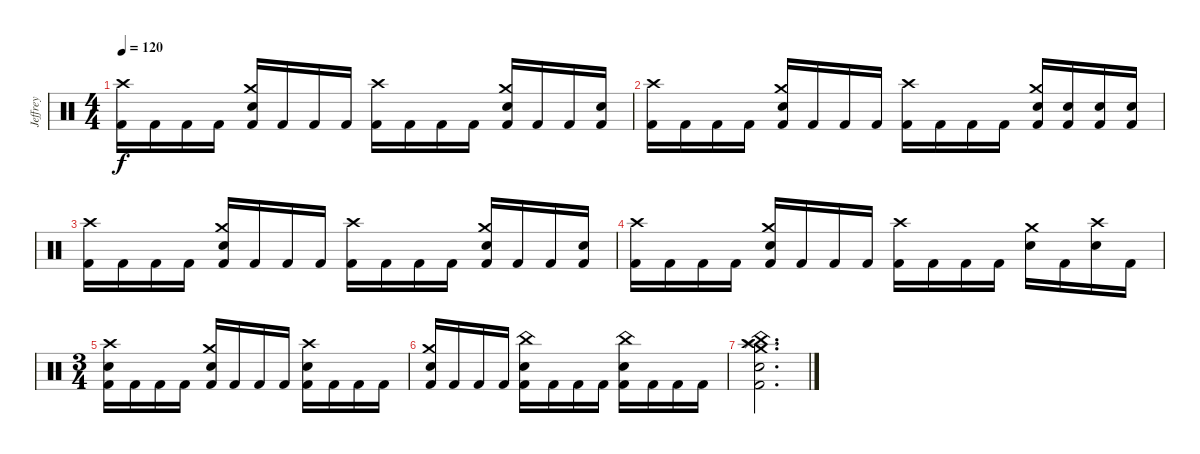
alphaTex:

\track ("Jeffrey" "Jeffrey") {instrument percussion}
\staff {score}
\articulation defaults
\ts (4 4)
\tempo 120
\clef neutral
\ks c
("Crash high (hit)" "Kick (hit) 2").16{dy f} "Kick (hit) 2".16 "Kick (hit) 2".16 "Kick (hit) 2".16 ("Crash medium (hit)" "Electric Snare (hit)" "Kick (hit) 2").16 "Kick (hit) 2".16 "Kick (hit) 2".16 "Kick (hit) 2".16 ("Crash high (hit)" "Kick (hit) 2").16 "Kick (hit) 2".16 "Kick (hit) 2".16 "Kick (hit) 2".16 ("Crash medium (hit)" "Electric Snare (hit)" "Kick (hit) 2").16 "Kick (hit) 2".16 "Kick (hit) 2".16 ("Electric Snare (hit)" "Kick (hit) 2").16 |
("Crash high (hit)" "Kick (hit) 2").16 "Kick (hit) 2".16 "Kick (hit) 2".16 "Kick (hit) 2".16 ("Crash medium (hit)" "Electric Snare (hit)" "Kick (hit) 2").16 "Kick (hit) 2".16 "Kick (hit) 2".16 "Kick (hit) 2".16 ("Crash high (hit)" "Kick (hit) 2").16 "Kick (hit) 2".16 "Kick (hit) 2".16 "Kick (hit) 2".16 ("Crash medium (hit)" "Electric Snare (hit)" "Kick (hit) 2").16 ("Electric Snare (hit)" "Kick (hit) 2").16 ("Electric Snare (hit)" "Kick (hit) 2").16 ("Electric Snare (hit)" "Kick (hit) 2").16 |
("Crash high (hit)" "Kick (hit) 2").16 "Kick (hit) 2".16 "Kick (hit) 2".16 "Kick (hit) 2".16 ("Crash medium (hit)" "Electric Snare (hit)" "Kick (hit) 2").16 "Kick (hit) 2".16 "Kick (hit) 2".16 "Kick (hit) 2".16 ("Crash high (hit)" "Kick (hit) 2").16 "Kick (hit) 2".16 "Kick (hit) 2".16 "Kick (hit) 2".16 ("Crash medium (hit)" "Electric Snare (hit)" "Kick (hit) 2").16 "Kick (hit) 2".16 "Kick (hit) 2".16 ("Electric Snare (hit)" "Kick (hit) 2").16 |
("Crash high (hit)" "Kick (hit) 2").16 "Kick (hit) 2".16 "Kick (hit) 2".16 "Kick (hit) 2".16 ("Crash medium (hit)" "Electric Snare (hit)" "Kick (hit) 2").16 "Kick (hit) 2".16 "Kick (hit) 2".16 "Kick (hit) 2".16 ("Crash high (hit)" "Kick (hit) 2").16 "Kick (hit) 2".16 "Kick (hit) 2".16 "Kick (hit) 2".16 ("Crash medium (hit)" "Electric Snare (hit)").16 "Kick (hit) 2".16 ("Crash high (hit)" "Electric Snare (hit)").16 "Kick (hit) 2".16 |
\ts (3 4)
("Crash high (hit)" "Electric Snare (hit)" "Kick (hit) 2").16 "Kick (hit) 2".16 "Kick (hit) 2".16 "Kick (hit) 2".16 ("Crash medium (hit)" "Electric Snare (hit)" "Kick (hit) 2").16 "Kick (hit) 2".16 "Kick (hit) 2".16 "Kick (hit) 2".16 ("Crash high (hit)" "Electric Snare (hit)" "Kick (hit) 2").16 "Kick (hit) 2".16 "Kick (hit) 2".16 "Kick (hit) 2".16 |
("Crash medium (hit)" "Electric Snare (hit)" "Kick (hit) 2").16 "Kick (hit) 2".16 "Kick (hit) 2".16 "Kick (hit) 2".16 ("China (hit)" "Electric Snare (hit)" "Kick (hit) 2").16 "Kick (hit) 2".16 "Kick (hit) 2".16 "Kick (hit) 2".16 ("China (hit)" "Electric Snare (hit)" "Kick (hit) 2").16 "Kick (hit) 2".16 "Kick (hit) 2".16 "Kick (hit) 2".16 |
("Crash high (hit)" "Crash medium (hit)" "Splash (hit)" "China (hit)" "Electric Snare (hit)" "Kick (hit) 2").2{d}
